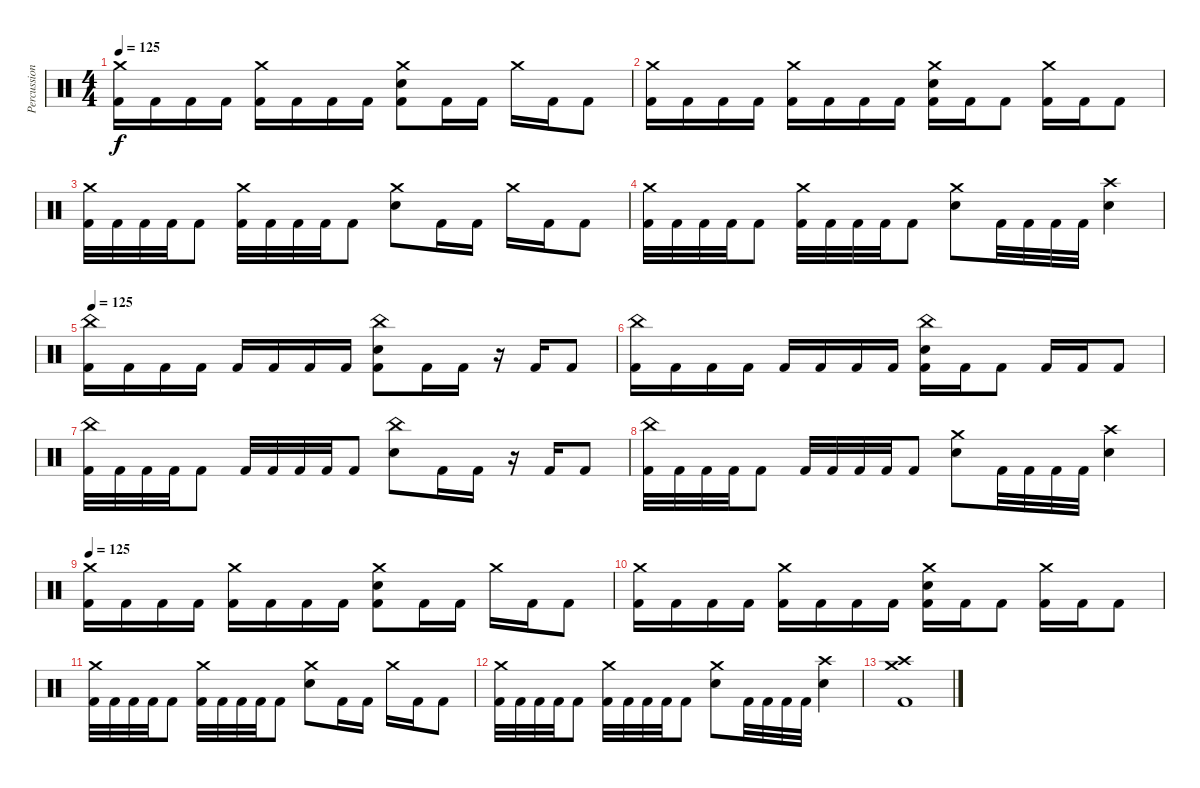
\track ("Percussion" "Percussion") {instrument percussion}
\staff {score}
\articulation defaults
\ts (4 4)
\tempo 125
\clef neutral
\ks c
("Crash medium (hit)" "Kick (hit) 2").16{dy f} "Kick (hit) 2".16 "Kick (hit) 2".16 "Kick (hit) 2".16 ("Crash medium (hit)" "Kick (hit) 2").16 "Kick (hit) 2".16 "Kick (hit) 2".16 "Kick (hit) 2".16 ("Crash medium (hit)" "Snare (hit) 2" "Kick (hit) 2").8 "Kick (hit) 2".16 "Kick (hit) 2".16 "Crash medium (hit)".16 "Kick (hit) 2".16 "Kick (hit) 2".8 |
("Crash medium (hit)" "Kick (hit) 2").16 "Kick (hit) 2".16 "Kick (hit) 2".16 "Kick (hit) 2".16 ("Crash medium (hit)" "Kick (hit) 2").16 "Kick (hit) 2".16 "Kick (hit) 2".16 "Kick (hit) 2".16 ("Crash medium (hit)" "Snare (hit) 2" "Kick (hit) 2").16 "Kick (hit) 2".16 "Kick (hit) 2".8 ("Crash medium (hit)" "Kick (hit) 2").16 "Kick (hit) 2".16 "Kick (hit) 2".8 |
("Crash medium (hit)" "Kick (hit) 2").32 "Kick (hit) 2".32 "Kick (hit) 2".32 "Kick (hit) 2".32 "Kick (hit) 2".8 ("Crash medium (hit)" "Kick (hit) 2").32 "Kick (hit) 2".32 "Kick (hit) 2".32 "Kick (hit) 2".32 "Kick (hit) 2".8 ("Crash medium (hit)" "Snare (hit) 2").8 "Kick (hit) 2".16 "Kick (hit) 2".16 "Crash medium (hit)".16 "Kick (hit) 2".16 "Kick (hit) 2".8 |
("Crash medium (hit)" "Kick (hit) 2").32 "Kick (hit) 2".32 "Kick (hit) 2".32 "Kick (hit) 2".32 "Kick (hit) 2".8 ("Crash medium (hit)" "Kick (hit) 2").32 "Kick (hit) 2".32 "Kick (hit) 2".32 "Kick (hit) 2".32 "Kick (hit) 2".8 ("Crash medium (hit)" "Snare (hit) 2").8 "Kick (hit) 2".32 "Kick (hit) 2".32 "Kick (hit) 2".32 "Kick (hit) 2".32 ("Crash high (hit)" "Snare (hit) 2").4 |
\tempo 125
("China (hit)" "Kick (hit) 2").16 "Kick (hit) 2".16 "Kick (hit) 2".16 "Kick (hit) 2".16 "Kick (hit) 2".16 "Kick (hit) 2".16 "Kick (hit) 2".16 "Kick (hit) 2".16 ("China (hit)" "Snare (hit) 2" "Kick (hit) 2").8 "Kick (hit) 2".16 "Kick (hit) 2".16 r.16 "Kick (hit) 2".16 "Kick (hit) 2".8 |
("China (hit)" "Kick (hit) 2").16 "Kick (hit) 2".16 "Kick (hit) 2".16 "Kick (hit) 2".16 "Kick (hit) 2".16 "Kick (hit) 2".16 "Kick (hit) 2".16 "Kick (hit) 2".16 ("China (hit)" "Snare (hit) 2" "Kick (hit) 2").16 "Kick (hit) 2".16 "Kick (hit) 2".8 "Kick (hit) 2".16 "Kick (hit) 2".16 "Kick (hit) 2".8 |
("China (hit)" "Kick (hit) 2").32 "Kick (hit) 2".32 "Kick (hit) 2".32 "Kick (hit) 2".32 "Kick (hit) 2".8 "Kick (hit) 2".32 "Kick (hit) 2".32 "Kick (hit) 2".32 "Kick (hit) 2".32 "Kick (hit) 2".8 ("China (hit)" "Snare (hit) 2").8 "Kick (hit) 2".16 "Kick (hit) 2".16 r.16 "Kick (hit) 2".16 "Kick (hit) 2".8 |
("China (hit)" "Kick (hit) 2").32 "Kick (hit) 2".32 "Kick (hit) 2".32 "Kick (hit) 2".32 "Kick (hit) 2".8 "Kick (hit) 2".32 "Kick (hit) 2".32 "Kick (hit) 2".32 "Kick (hit) 2".32 "Kick (hit) 2".8 ("Crash medium (hit)" "Snare (hit) 2").8 "Kick (hit) 2".32 "Kick (hit) 2".32 "Kick (hit) 2".32 "Kick (hit) 2".32 ("Crash high (hit)" "Snare (hit) 2").4 |
\tempo 125
("Crash medium (hit)" "Kick (hit) 2").16 "Kick (hit) 2".16 "Kick (hit) 2".16 "Kick (hit) 2".16 ("Crash medium (hit)" "Kick (hit) 2").16 "Kick (hit) 2".16 "Kick (hit) 2".16 "Kick (hit) 2".16 ("Crash medium (hit)" "Snare (hit) 2" "Kick (hit) 2").8 "Kick (hit) 2".16 "Kick (hit) 2".16 "Crash medium (hit)".16 "Kick (hit) 2".16 "Kick (hit) 2".8 |
("Crash medium (hit)" "Kick (hit) 2").16 "Kick (hit) 2".16 "Kick (hit) 2".16 "Kick (hit) 2".16 ("Crash medium (hit)" "Kick (hit) 2").16 "Kick (hit) 2".16 "Kick (hit) 2".16 "Kick (hit) 2".16 ("Crash medium (hit)" "Snare (hit) 2" "Kick (hit) 2").16 "Kick (hit) 2".16 "Kick (hit) 2".8 ("Crash medium (hit)" "Kick (hit) 2").16 "Kick (hit) 2".16 "Kick (hit) 2".8 |
("Crash medium (hit)" "Kick (hit) 2").32 "Kick (hit) 2".32 "Kick (hit) 2".32 "Kick (hit) 2".32 "Kick (hit) 2".8 ("Crash medium (hit)" "Kick (hit) 2").32 "Kick (hit) 2".32 "Kick (hit) 2".32 "Kick (hit) 2".32 "Kick (hit) 2".8 ("Crash medium (hit)" "Snare (hit) 2").8 "Kick (hit) 2".16 "Kick (hit) 2".16 "Crash medium (hit)".16 "Kick (hit) 2".16 "Kick (hit) 2".8 |
("Crash medium (hit)" "Kick (hit) 2").32 "Kick (hit) 2".32 "Kick (hit) 2".32 "Kick (hit) 2".32 "Kick (hit) 2".8 ("Crash medium (hit)" "Kick (hit) 2").32 "Kick (hit) 2".32 "Kick (hit) 2".32 "Kick (hit) 2".32 "Kick (hit) 2".8 ("Crash medium (hit)" "Snare (hit) 2").8 "Kick (hit) 2".32 "Kick (hit) 2".32 "Kick (hit) 2".32 "Kick (hit) 2".32 ("Crash high (hit)" "Snare (hit) 2").4 |
("Crash medium (hit)" "Crash high (hit)" "Kick (hit) 2").1
